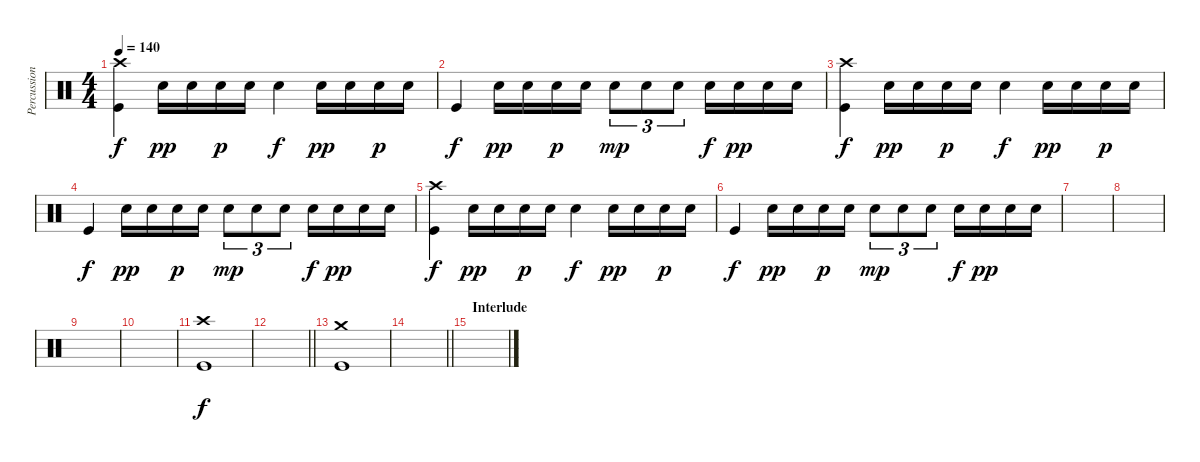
\track ("Percussion" "Percussion") {instrument percussion}
\staff {score}
\articulation defaults
\ts (4 4)
\tempo 140
\clef neutral
\ks c
("Crash high (hit)" "Kick (hit)").4{dy f} "Electric Snare (hit)".16{dy pp} "Electric Snare (hit)".16 "Electric Snare (hit)".16{dy p} "Electric Snare (hit)".16 "Electric Snare (hit)".4{dy f} "Electric Snare (hit)".16{dy pp} "Electric Snare (hit)".16 "Electric Snare (hit)".16{dy p} "Electric Snare (hit)".16 |
"Kick (hit)".4{dy f} "Electric Snare (hit)".16{dy pp} "Electric Snare (hit)".16 "Electric Snare (hit)".16{dy p} "Electric Snare (hit)".16 "Electric Snare (hit)".8{tu (3 2) dy mp} "Electric Snare (hit)".8{tu (3 2)} "Electric Snare (hit)".8{tu (3 2)} "Electric Snare (hit)".16{dy f} "Electric Snare (hit)".16{dy pp} "Electric Snare (hit)".16 "Electric Snare (hit)".16 |
("Crash high (hit)" "Kick (hit)").4{dy f} "Electric Snare (hit)".16{dy pp} "Electric Snare (hit)".16 "Electric Snare (hit)".16{dy p} "Electric Snare (hit)".16 "Electric Snare (hit)".4{dy f} "Electric Snare (hit)".16{dy pp} "Electric Snare (hit)".16 "Electric Snare (hit)".16{dy p} "Electric Snare (hit)".16 |
"Kick (hit)".4{dy f} "Electric Snare (hit)".16{dy pp} "Electric Snare (hit)".16 "Electric Snare (hit)".16{dy p} "Electric Snare (hit)".16 "Electric Snare (hit)".8{tu (3 2) dy mp} "Electric Snare (hit)".8{tu (3 2)} "Electric Snare (hit)".8{tu (3 2)} "Electric Snare (hit)".16{dy f} "Electric Snare (hit)".16{dy pp} "Electric Snare (hit)".16 "Electric Snare (hit)".16 |
("Crash high (hit)" "Kick (hit)").4{dy f} "Electric Snare (hit)".16{dy pp} "Electric Snare (hit)".16 "Electric Snare (hit)".16{dy p} "Electric Snare (hit)".16 "Electric Snare (hit)".4{dy f} "Electric Snare (hit)".16{dy pp} "Electric Snare (hit)".16 "Electric Snare (hit)".16{dy p} "Electric Snare (hit)".16 |
"Kick (hit)".4{dy f} "Electric Snare (hit)".16{dy pp} "Electric Snare (hit)".16 "Electric Snare (hit)".16{dy p} "Electric Snare (hit)".16 "Electric Snare (hit)".8{tu (3 2) dy mp} "Electric Snare (hit)".8{tu (3 2)} "Electric Snare (hit)".8{tu (3 2)} "Electric Snare (hit)".16{dy f} "Electric Snare (hit)".16{dy pp} "Electric Snare (hit)".16 "Electric Snare (hit)".16 |
|
|
|
|
("Crash high (hit)" "Kick (hit)").1{dy f} |
\barLineRight lightlight
|
("Crash medium (hit)" "Kick (hit)").1 |
\barLineRight lightlight
|
\section ("" "Interlude")
